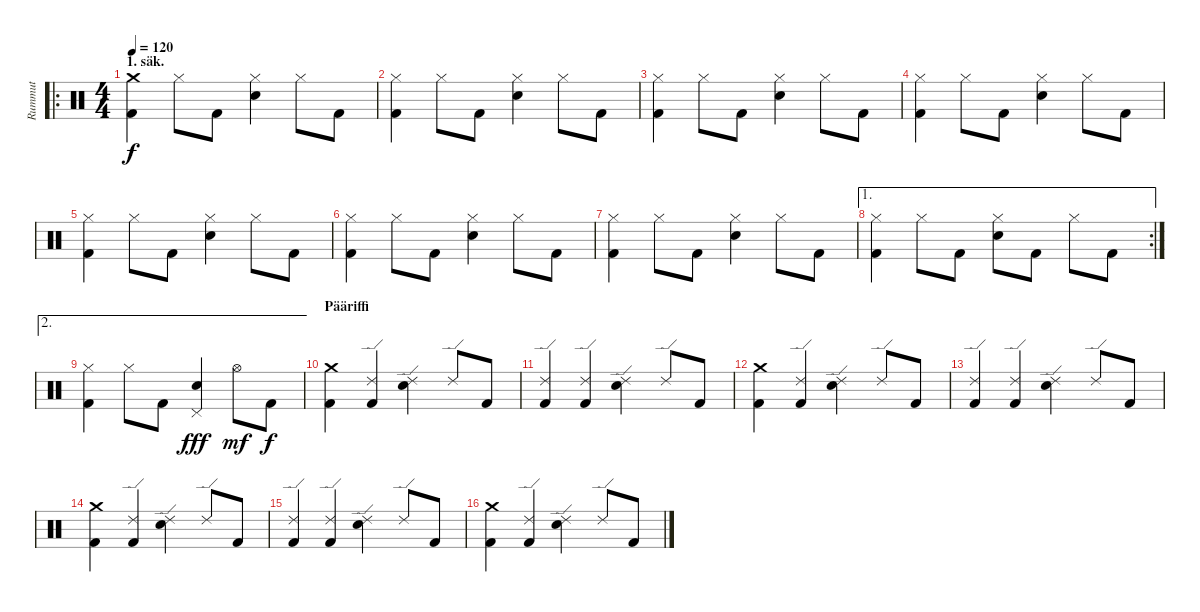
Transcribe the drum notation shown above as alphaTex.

\track ("Rummut" "Rummut") {instrument percussion}
\staff {score}
\articulation defaults
\ro
\ts (4 4)
\section ("" "1. säk.")
\tempo 120
\clef neutral
\ks c
("Kick (hit) 2" "Crash medium (hit)").4{dy f} "Hi-Hat (closed)".8 "Kick (hit) 2".8 ("Hi-Hat (closed)" "Snare (hit) 2").4 "Hi-Hat (closed)".8 "Kick (hit) 2".8 |
("Kick (hit) 2" "Hi-Hat (closed)").4 "Hi-Hat (closed)".8 "Kick (hit) 2".8 ("Hi-Hat (closed)" "Snare (hit) 2").4 "Hi-Hat (closed)".8 "Kick (hit) 2".8 |
("Kick (hit) 2" "Hi-Hat (closed)").4 "Hi-Hat (closed)".8 "Kick (hit) 2".8 ("Hi-Hat (closed)" "Snare (hit) 2").4 "Hi-Hat (closed)".8 "Kick (hit) 2".8 |
("Kick (hit) 2" "Hi-Hat (closed)").4 "Hi-Hat (closed)".8 "Kick (hit) 2".8 ("Hi-Hat (closed)" "Snare (hit) 2").4 "Hi-Hat (closed)".8 "Kick (hit) 2".8 |
("Kick (hit) 2" "Hi-Hat (closed)").4 "Hi-Hat (closed)".8 "Kick (hit) 2".8 ("Hi-Hat (closed)" "Snare (hit) 2").4 "Hi-Hat (closed)".8 "Kick (hit) 2".8 |
("Kick (hit) 2" "Hi-Hat (closed)").4 "Hi-Hat (closed)".8 "Kick (hit) 2".8 ("Hi-Hat (closed)" "Snare (hit) 2").4 "Hi-Hat (closed)".8 "Kick (hit) 2".8 |
("Kick (hit) 2" "Hi-Hat (closed)").4 "Hi-Hat (closed)".8 "Kick (hit) 2".8 ("Hi-Hat (closed)" "Snare (hit) 2").4 "Hi-Hat (closed)".8 "Kick (hit) 2".8 |
\ae 1
\rc 2
("Kick (hit) 2" "Hi-Hat (closed)").4 "Hi-Hat (closed)".8 "Kick (hit) 2".8 ("Hi-Hat (closed)" "Snare (hit) 2").8 "Kick (hit) 2".8 "Hi-Hat (closed)".8 "Kick (hit) 2".8 |
\ae 2
("Kick (hit) 2" "Hi-Hat (closed)").4 "Hi-Hat (closed)".8 "Kick (hit) 2".8 ("Pedal Hi-Hat (hit)" "Snare (hit) 2").4{dy fff} "Hi-Hat (open)".8{dy mf} "Kick (hit) 2".8{dy f} |
\section ("" "Pääriffi")
("Kick (hit) 2" "Crash medium (hit)").4 ("Kick (hit) 2" "Ride (edge) 2").4 ("Ride (edge) 2" "Snare (hit) 2").4 "Ride (edge) 2".8 "Kick (hit) 2".8 |
("Kick (hit) 2" "Ride (edge) 2").4 ("Kick (hit) 2" "Ride (edge) 2").4 ("Ride (edge) 2" "Snare (hit) 2").4 "Ride (edge) 2".8 "Kick (hit) 2".8 |
("Kick (hit) 2" "Crash medium (hit)").4 ("Kick (hit) 2" "Ride (edge) 2").4 ("Ride (edge) 2" "Snare (hit) 2").4 "Ride (edge) 2".8 "Kick (hit) 2".8 |
("Kick (hit) 2" "Ride (edge) 2").4 ("Kick (hit) 2" "Ride (edge) 2").4 ("Ride (edge) 2" "Snare (hit) 2").4 "Ride (edge) 2".8 "Kick (hit) 2".8 |
("Kick (hit) 2" "Crash medium (hit)").4 ("Kick (hit) 2" "Ride (edge) 2").4 ("Ride (edge) 2" "Snare (hit) 2").4 "Ride (edge) 2".8 "Kick (hit) 2".8 |
("Kick (hit) 2" "Ride (edge) 2").4 ("Kick (hit) 2" "Ride (edge) 2").4 ("Ride (edge) 2" "Snare (hit) 2").4 "Ride (edge) 2".8 "Kick (hit) 2".8 |
("Kick (hit) 2" "Crash medium (hit)").4 ("Kick (hit) 2" "Ride (edge) 2").4 ("Ride (edge) 2" "Snare (hit) 2").4 "Ride (edge) 2".8 "Kick (hit) 2".8
